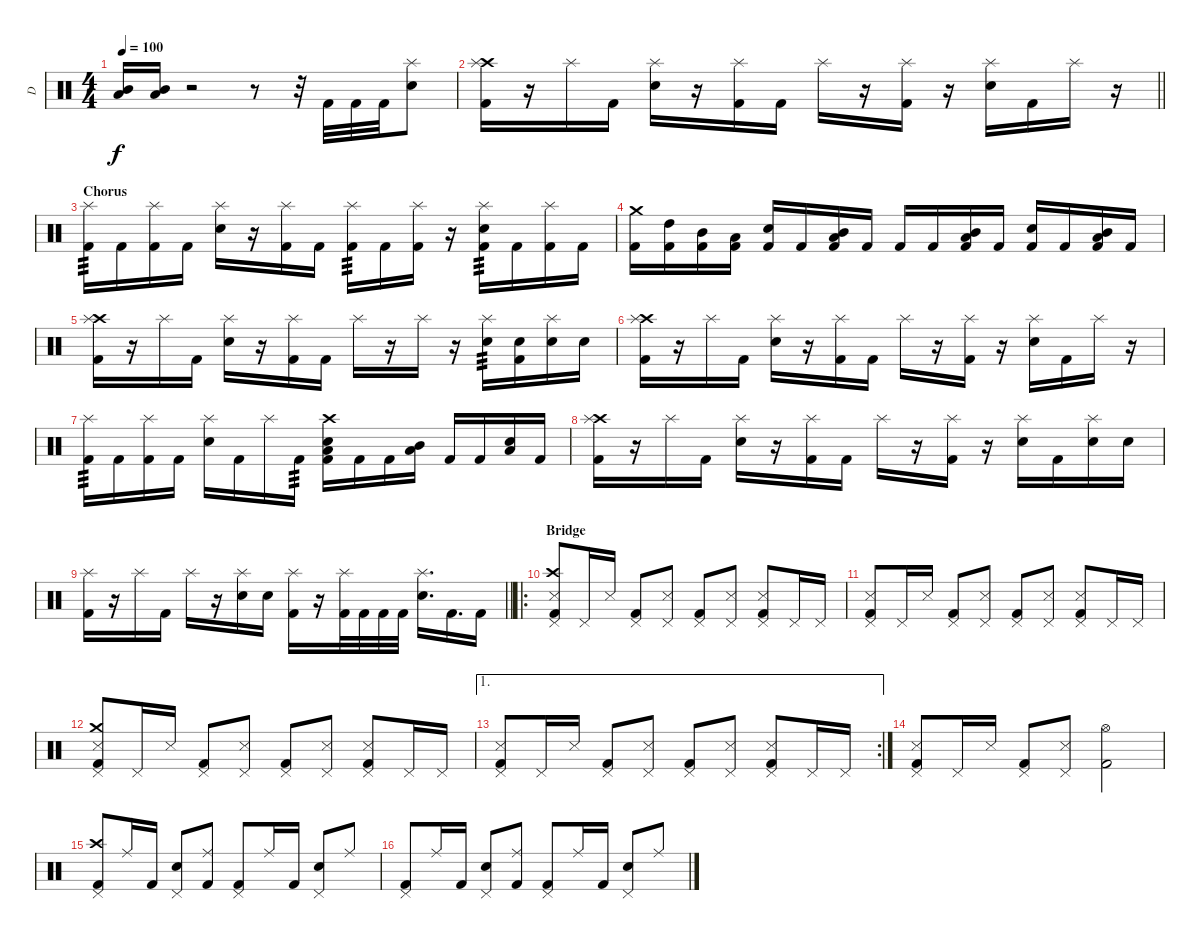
\track ("D" "D") {instrument percussion}
\staff {score}
\articulation defaults
\ts (4 4)
\tempo 100
\clef neutral
\ks c
("Mid Tom (hit)" "Low Tom (hit)").16{dy f} ("Mid Tom (hit)" "Low Tom (hit)").16 r.2 r.8 r.32 "Kick (hit) 2".32 "Kick (hit) 2".32 "Kick (hit) 2".32 ("Electric Snare (hit)" "Splash (hit)").8 |
\barLineRight lightlight
("Crash high (hit)" "Kick (hit) 2" "Splash (hit)").16 r.16 "Splash (hit)".16 "Kick (hit) 2".16 ("Electric Snare (hit)" "Splash (hit)").16 r.16 ("Kick (hit) 2" "Splash (hit)").16 "Kick (hit) 2".16 "Splash (hit)".16 r.16 ("Kick (hit) 2" "Splash (hit)").16 r.16 ("Electric Snare (hit)" "Splash (hit)").16 "Kick (hit) 2".16 "Splash (hit)".16 r.16 |
\section ("" "Chorus")
("Kick (hit) 2" "Splash (hit)").16{tp 3} "Kick (hit) 2".16 ("Kick (hit) 2" "Splash (hit)").16 "Kick (hit) 2".16 ("Electric Snare (hit)" "Splash (hit)").16 r.16 ("Kick (hit) 2" "Splash (hit)").16 "Kick (hit) 2".16 ("Kick (hit) 2" "Splash (hit)").16{tp 3} "Kick (hit) 2".16 ("Kick (hit) 2" "Splash (hit)").16 r.16 ("Electric Snare (hit)" "Kick (hit) 2" "Splash (hit)").16{tp 3} "Kick (hit) 2".16 ("Kick (hit) 2" "Splash (hit)").16 "Kick (hit) 2".16 |
("Crash medium (hit)" "Kick (hit) 2").16 ("High Tom (hit)" "Kick (hit) 2").16 ("Mid Tom (hit)" "Kick (hit) 2").16 ("Low Tom (hit)" "Kick (hit) 2").16 ("Electric Snare (hit)" "Kick (hit) 2").16 "Kick (hit) 2".16 ("Mid Tom (hit)" "Low Tom (hit)" "Kick (hit) 2").16 "Kick (hit) 2".16 "Kick (hit) 2".16 "Kick (hit) 2".16 ("Mid Tom (hit)" "Low Tom (hit)" "Kick (hit) 2").16 "Kick (hit) 2".16 ("Electric Snare (hit)" "Kick (hit) 2").16 "Kick (hit) 2".16 ("Mid Tom (hit)" "Low Tom (hit)" "Kick (hit) 2").16 "Kick (hit) 2".16 |
("Crash high (hit)" "Kick (hit) 2" "Splash (hit)").16 r.16 "Splash (hit)".16 "Kick (hit) 2".16 ("Electric Snare (hit)" "Splash (hit)").16 r.16 ("Kick (hit) 2" "Splash (hit)").16 "Kick (hit) 2".16 "Splash (hit)".16 r.16 "Splash (hit)".16 r.16 ("Electric Snare (hit)" "Splash (hit)").16{tp 3} ("Electric Snare (hit)" "Kick (hit) 2").16 ("Electric Snare (hit)" "Splash (hit)").16 "Electric Snare (hit)".16 |
("Crash high (hit)" "Kick (hit) 2" "Splash (hit)").16 r.16 "Splash (hit)".16 "Kick (hit) 2".16 ("Electric Snare (hit)" "Splash (hit)").16 r.16 ("Kick (hit) 2" "Splash (hit)").16 "Kick (hit) 2".16 "Splash (hit)".16 r.16 ("Kick (hit) 2" "Splash (hit)").16 r.16 ("Electric Snare (hit)" "Splash (hit)").16 "Kick (hit) 2".16 "Splash (hit)".16 r.16 |
("Kick (hit) 2" "Splash (hit)").16{tp 3} "Kick (hit) 2".16 ("Kick (hit) 2" "Splash (hit)").16 "Kick (hit) 2".16 ("Electric Snare (hit)" "Splash (hit)").16 "Kick (hit) 2".16 "Splash (hit)".16 "Kick (hit) 2".16{tp 3} ("Crash high (hit)" "Low Tom (hit)" "Electric Snare (hit)" "Kick (hit) 2").16 "Kick (hit) 2".16 "Kick (hit) 2".16 ("Low Tom (hit)" "Mid Tom (hit)").16 "Kick (hit) 2".16 "Kick (hit) 2".16 ("Low Tom (hit)" "Electric Snare (hit)").16 "Kick (hit) 2".16 |
("Crash high (hit)" "Kick (hit) 2" "Splash (hit)").16 r.16 "Splash (hit)".16 "Kick (hit) 2".16 ("Electric Snare (hit)" "Splash (hit)").16 r.16 ("Kick (hit) 2" "Splash (hit)").16 "Kick (hit) 2".16 "Splash (hit)".16 r.16 ("Kick (hit) 2" "Splash (hit)").16 r.16 ("Electric Snare (hit)" "Splash (hit)").16 "Kick (hit) 2".16 ("Electric Snare (hit)" "Splash (hit)").16 "Electric Snare (hit)".16 |
\barLineRight lightlight
("Kick (hit) 2" "Splash (hit)").16 r.16 "Splash (hit)".16 "Kick (hit) 2".16 "Splash (hit)".16 r.16 ("Electric Snare (hit)" "Splash (hit)").16 "Electric Snare (hit)".16 ("Kick (hit) 2" "Splash (hit)").16 r.16 ("Kick (hit) 2" "Splash (hit)").32 "Kick (hit) 2".32 "Kick (hit) 2".32 "Kick (hit) 2".32 ("Electric Snare (hit)" "Splash (hit)").16{d} "Kick (hit) 2".16{d} "Kick (hit) 2".16 |
\ro
\section ("" "Bridge")
("Crash high (hit)" "Metronome (hit)" "Kick (hit) 2" "Pedal Hi-Hat (hit)").8 "Pedal Hi-Hat (hit)".16 "Metronome (hit)".16 ("Kick (hit) 2" "Pedal Hi-Hat (hit)").8 ("Metronome (hit)" "Pedal Hi-Hat (hit)").8 ("Kick (hit) 2" "Pedal Hi-Hat (hit)").8 ("Metronome (hit)" "Pedal Hi-Hat (hit)").8 ("Metronome (hit)" "Kick (hit) 2" "Pedal Hi-Hat (hit)").8 "Pedal Hi-Hat (hit)".16 "Pedal Hi-Hat (hit)".16 |
("Metronome (hit)" "Kick (hit) 2" "Pedal Hi-Hat (hit)").8 "Pedal Hi-Hat (hit)".16 "Metronome (hit)".16 ("Kick (hit) 2" "Pedal Hi-Hat (hit)").8 ("Metronome (hit)" "Pedal Hi-Hat (hit)").8 ("Kick (hit) 2" "Pedal Hi-Hat (hit)").8 ("Metronome (hit)" "Pedal Hi-Hat (hit)").8 ("Metronome (hit)" "Kick (hit) 2" "Pedal Hi-Hat (hit)").8 "Pedal Hi-Hat (hit)".16 "Pedal Hi-Hat (hit)".16 |
("Crash medium (hit)" "Metronome (hit)" "Kick (hit) 2" "Pedal Hi-Hat (hit)").8 "Pedal Hi-Hat (hit)".16 "Metronome (hit)".16 ("Kick (hit) 2" "Pedal Hi-Hat (hit)").8 ("Metronome (hit)" "Pedal Hi-Hat (hit)").8 ("Kick (hit) 2" "Pedal Hi-Hat (hit)").8 ("Metronome (hit)" "Pedal Hi-Hat (hit)").8 ("Metronome (hit)" "Kick (hit) 2" "Pedal Hi-Hat (hit)").8 "Pedal Hi-Hat (hit)".16 "Pedal Hi-Hat (hit)".16 |
\ae 1
\rc 2
("Metronome (hit)" "Kick (hit) 2" "Pedal Hi-Hat (hit)").8 "Pedal Hi-Hat (hit)".16 "Metronome (hit)".16 ("Kick (hit) 2" "Pedal Hi-Hat (hit)").8 ("Metronome (hit)" "Pedal Hi-Hat (hit)").8 ("Kick (hit) 2" "Pedal Hi-Hat (hit)").8 ("Metronome (hit)" "Pedal Hi-Hat (hit)").8 ("Metronome (hit)" "Kick (hit) 2" "Pedal Hi-Hat (hit)").8 "Pedal Hi-Hat (hit)".16 "Pedal Hi-Hat (hit)".16 |
("Metronome (hit)" "Kick (hit) 2" "Pedal Hi-Hat (hit)").8 "Pedal Hi-Hat (hit)".16 "Metronome (hit)".16 ("Kick (hit) 2" "Pedal Hi-Hat (hit)").8 ("Metronome (hit)" "Pedal Hi-Hat (hit)").8 ("Hi-Hat (open)" "Kick (hit) 2").2 |
("Crash high (hit)" "Kick (hit) 2" "Pedal Hi-Hat (hit)").8 "Ride (middle)".16 "Kick (hit) 2".16 ("Electric Snare (hit)" "Pedal Hi-Hat (hit)").8 ("Kick (hit) 2" "Ride (middle)").8 ("Kick (hit) 2" "Pedal Hi-Hat (hit)").8 "Ride (middle)".16 "Kick (hit) 2".16 ("Electric Snare (hit)" "Pedal Hi-Hat (hit)").8 "Ride (middle)".8 |
("Kick (hit) 2" "Pedal Hi-Hat (hit)").8 "Ride (middle)".16 "Kick (hit) 2".16 ("Electric Snare (hit)" "Pedal Hi-Hat (hit)").8 ("Kick (hit) 2" "Ride (middle)").8 ("Kick (hit) 2" "Pedal Hi-Hat (hit)").8 "Ride (middle)".16 "Kick (hit) 2".16 ("Electric Snare (hit)" "Pedal Hi-Hat (hit)").8 "Ride (middle)".8
